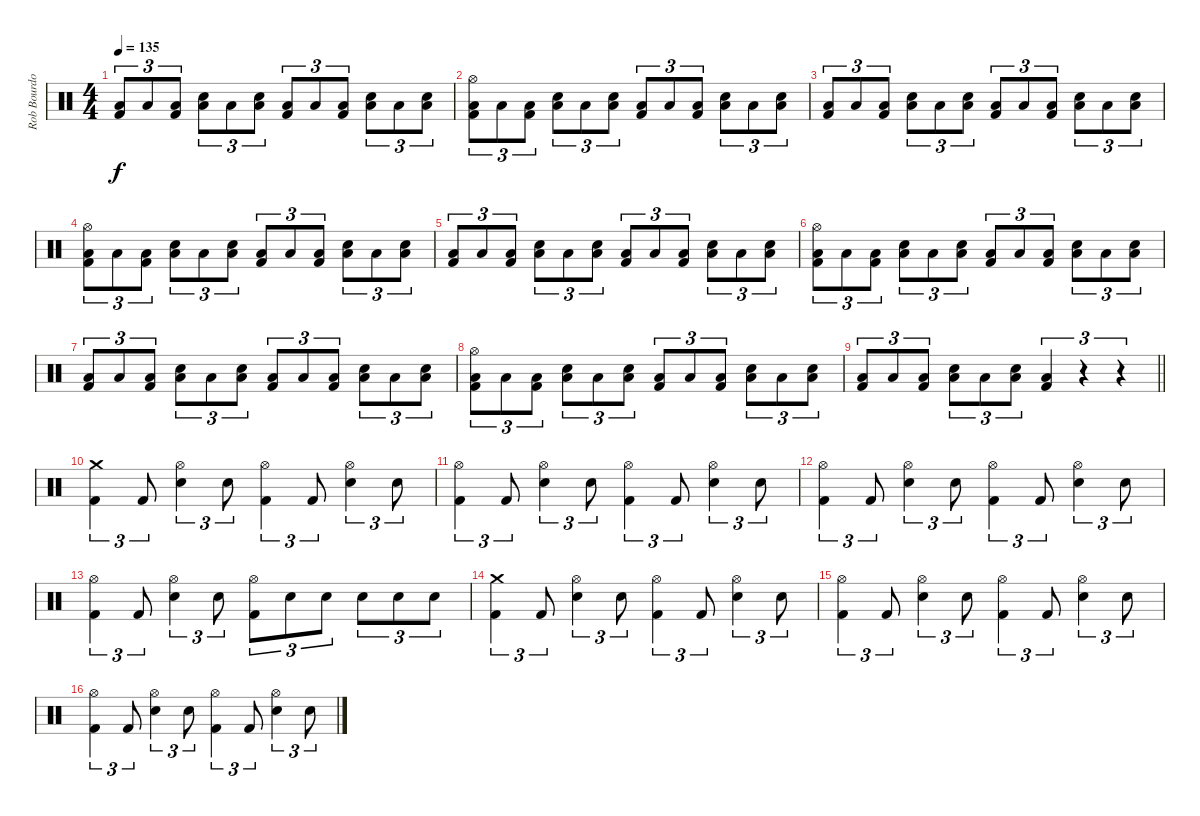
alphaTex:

\track ("Rob Bourdon [Drums]" "Rob Bourdo") {instrument percussion bank 5}
\staff {score}
\articulation defaults
\ts (4 4)
\tempo 135
\clef neutral
\ks c
("Low Tom (hit)" "Kick (hit) 2").8{tu (3 2) dy f} "Low Tom (hit)".8{tu (3 2)} ("Low Tom (hit)" "Kick (hit) 2").8{tu (3 2)} ("Low Tom (hit)" "Electric Snare (hit)").8{tu (3 2)} "Low Tom (hit)".8{tu (3 2)} ("Low Tom (hit)" "Electric Snare (hit)").8{tu (3 2)} ("Low Tom (hit)" "Kick (hit) 2").8{tu (3 2)} "Low Tom (hit)".8{tu (3 2)} ("Low Tom (hit)" "Kick (hit) 2").8{tu (3 2)} ("Low Tom (hit)" "Electric Snare (hit)").8{tu (3 2)} "Low Tom (hit)".8{tu (3 2)} ("Low Tom (hit)" "Electric Snare (hit)").8{tu (3 2)} |
("Hi-Hat (open)" "Low Tom (hit)" "Kick (hit) 2").8{tu (3 2)} "Low Tom (hit)".8{tu (3 2)} ("Low Tom (hit)" "Kick (hit) 2").8{tu (3 2)} ("Low Tom (hit)" "Electric Snare (hit)").8{tu (3 2)} "Low Tom (hit)".8{tu (3 2)} ("Low Tom (hit)" "Electric Snare (hit)").8{tu (3 2)} ("Low Tom (hit)" "Kick (hit) 2").8{tu (3 2)} "Low Tom (hit)".8{tu (3 2)} ("Low Tom (hit)" "Kick (hit) 2").8{tu (3 2)} ("Low Tom (hit)" "Electric Snare (hit)").8{tu (3 2)} "Low Tom (hit)".8{tu (3 2)} ("Low Tom (hit)" "Electric Snare (hit)").8{tu (3 2)} |
("Low Tom (hit)" "Kick (hit) 2").8{tu (3 2)} "Low Tom (hit)".8{tu (3 2)} ("Low Tom (hit)" "Kick (hit) 2").8{tu (3 2)} ("Low Tom (hit)" "Electric Snare (hit)").8{tu (3 2)} "Low Tom (hit)".8{tu (3 2)} ("Low Tom (hit)" "Electric Snare (hit)").8{tu (3 2)} ("Low Tom (hit)" "Kick (hit) 2").8{tu (3 2)} "Low Tom (hit)".8{tu (3 2)} ("Low Tom (hit)" "Kick (hit) 2").8{tu (3 2)} ("Low Tom (hit)" "Electric Snare (hit)").8{tu (3 2)} "Low Tom (hit)".8{tu (3 2)} ("Low Tom (hit)" "Electric Snare (hit)").8{tu (3 2)} |
("Hi-Hat (open)" "Low Tom (hit)" "Kick (hit) 2").8{tu (3 2)} "Low Tom (hit)".8{tu (3 2)} ("Low Tom (hit)" "Kick (hit) 2").8{tu (3 2)} ("Low Tom (hit)" "Electric Snare (hit)").8{tu (3 2)} "Low Tom (hit)".8{tu (3 2)} ("Low Tom (hit)" "Electric Snare (hit)").8{tu (3 2)} ("Low Tom (hit)" "Kick (hit) 2").8{tu (3 2)} "Low Tom (hit)".8{tu (3 2)} ("Low Tom (hit)" "Kick (hit) 2").8{tu (3 2)} ("Low Tom (hit)" "Electric Snare (hit)").8{tu (3 2)} "Low Tom (hit)".8{tu (3 2)} ("Low Tom (hit)" "Electric Snare (hit)").8{tu (3 2)} |
("Low Tom (hit)" "Kick (hit) 2").8{tu (3 2)} "Low Tom (hit)".8{tu (3 2)} ("Low Tom (hit)" "Kick (hit) 2").8{tu (3 2)} ("Low Tom (hit)" "Electric Snare (hit)").8{tu (3 2)} "Low Tom (hit)".8{tu (3 2)} ("Low Tom (hit)" "Electric Snare (hit)").8{tu (3 2)} ("Low Tom (hit)" "Kick (hit) 2").8{tu (3 2)} "Low Tom (hit)".8{tu (3 2)} ("Low Tom (hit)" "Kick (hit) 2").8{tu (3 2)} ("Low Tom (hit)" "Electric Snare (hit)").8{tu (3 2)} "Low Tom (hit)".8{tu (3 2)} ("Low Tom (hit)" "Electric Snare (hit)").8{tu (3 2)} |
("Hi-Hat (open)" "Low Tom (hit)" "Kick (hit) 2").8{tu (3 2)} "Low Tom (hit)".8{tu (3 2)} ("Low Tom (hit)" "Kick (hit) 2").8{tu (3 2)} ("Low Tom (hit)" "Electric Snare (hit)").8{tu (3 2)} "Low Tom (hit)".8{tu (3 2)} ("Low Tom (hit)" "Electric Snare (hit)").8{tu (3 2)} ("Low Tom (hit)" "Kick (hit) 2").8{tu (3 2)} "Low Tom (hit)".8{tu (3 2)} ("Low Tom (hit)" "Kick (hit) 2").8{tu (3 2)} ("Low Tom (hit)" "Electric Snare (hit)").8{tu (3 2)} "Low Tom (hit)".8{tu (3 2)} ("Low Tom (hit)" "Electric Snare (hit)").8{tu (3 2)} |
("Low Tom (hit)" "Kick (hit) 2").8{tu (3 2)} "Low Tom (hit)".8{tu (3 2)} ("Low Tom (hit)" "Kick (hit) 2").8{tu (3 2)} ("Low Tom (hit)" "Electric Snare (hit)").8{tu (3 2)} "Low Tom (hit)".8{tu (3 2)} ("Low Tom (hit)" "Electric Snare (hit)").8{tu (3 2)} ("Low Tom (hit)" "Kick (hit) 2").8{tu (3 2)} "Low Tom (hit)".8{tu (3 2)} ("Low Tom (hit)" "Kick (hit) 2").8{tu (3 2)} ("Low Tom (hit)" "Electric Snare (hit)").8{tu (3 2)} "Low Tom (hit)".8{tu (3 2)} ("Low Tom (hit)" "Electric Snare (hit)").8{tu (3 2)} |
("Hi-Hat (open)" "Low Tom (hit)" "Kick (hit) 2").8{tu (3 2)} "Low Tom (hit)".8{tu (3 2)} ("Low Tom (hit)" "Kick (hit) 2").8{tu (3 2)} ("Low Tom (hit)" "Electric Snare (hit)").8{tu (3 2)} "Low Tom (hit)".8{tu (3 2)} ("Low Tom (hit)" "Electric Snare (hit)").8{tu (3 2)} ("Low Tom (hit)" "Kick (hit) 2").8{tu (3 2)} "Low Tom (hit)".8{tu (3 2)} ("Low Tom (hit)" "Kick (hit) 2").8{tu (3 2)} ("Low Tom (hit)" "Electric Snare (hit)").8{tu (3 2)} "Low Tom (hit)".8{tu (3 2)} ("Low Tom (hit)" "Electric Snare (hit)").8{tu (3 2)} |
\barLineRight lightlight
("Low Tom (hit)" "Kick (hit) 2").8{tu (3 2)} "Low Tom (hit)".8{tu (3 2)} ("Low Tom (hit)" "Kick (hit) 2").8{tu (3 2)} ("Low Tom (hit)" "Electric Snare (hit)").8{tu (3 2)} "Low Tom (hit)".8{tu (3 2)} ("Low Tom (hit)" "Electric Snare (hit)").8{tu (3 2)} ("Low Tom (hit)" "Kick (hit) 2").4{tu (3 2)} r.4{tu (3 2)} r.4{tu (3 2)} |
("Crash medium (hit)" "Kick (hit) 2").4{tu (3 2)} "Kick (hit) 2".8{tu (3 2)} ("Hi-Hat (open)" "Electric Snare (hit)").4{tu (3 2)} "Electric Snare (hit)".8{tu (3 2)} ("Hi-Hat (open)" "Kick (hit) 2").4{tu (3 2)} "Kick (hit) 2".8{tu (3 2)} ("Hi-Hat (open)" "Electric Snare (hit)").4{tu (3 2)} "Electric Snare (hit)".8{tu (3 2)} |
("Hi-Hat (open)" "Kick (hit) 2").4{tu (3 2)} "Kick (hit) 2".8{tu (3 2)} ("Hi-Hat (open)" "Electric Snare (hit)").4{tu (3 2)} "Electric Snare (hit)".8{tu (3 2)} ("Hi-Hat (open)" "Kick (hit) 2").4{tu (3 2)} "Kick (hit) 2".8{tu (3 2)} ("Hi-Hat (open)" "Electric Snare (hit)").4{tu (3 2)} "Electric Snare (hit)".8{tu (3 2)} |
("Hi-Hat (open)" "Kick (hit) 2").4{tu (3 2)} "Kick (hit) 2".8{tu (3 2)} ("Hi-Hat (open)" "Electric Snare (hit)").4{tu (3 2)} "Electric Snare (hit)".8{tu (3 2)} ("Hi-Hat (open)" "Kick (hit) 2").4{tu (3 2)} "Kick (hit) 2".8{tu (3 2)} ("Hi-Hat (open)" "Electric Snare (hit)").4{tu (3 2)} "Electric Snare (hit)".8{tu (3 2)} |
("Hi-Hat (open)" "Kick (hit) 2").4{tu (3 2)} "Kick (hit) 2".8{tu (3 2)} ("Hi-Hat (open)" "Electric Snare (hit)").4{tu (3 2)} "Electric Snare (hit)".8{tu (3 2)} ("Hi-Hat (open)" "Kick (hit) 2").8{tu (3 2)} "Electric Snare (hit)".8{tu (3 2)} "Electric Snare (hit)".8{tu (3 2)} "Electric Snare (hit)".8{tu (3 2)} "Electric Snare (hit)".8{tu (3 2)} "Electric Snare (hit)".8{tu (3 2)} |
("Crash medium (hit)" "Kick (hit) 2").4{tu (3 2)} "Kick (hit) 2".8{tu (3 2)} ("Hi-Hat (open)" "Electric Snare (hit)").4{tu (3 2)} "Electric Snare (hit)".8{tu (3 2)} ("Hi-Hat (open)" "Kick (hit) 2").4{tu (3 2)} "Kick (hit) 2".8{tu (3 2)} ("Hi-Hat (open)" "Electric Snare (hit)").4{tu (3 2)} "Electric Snare (hit)".8{tu (3 2)} |
("Hi-Hat (open)" "Kick (hit) 2").4{tu (3 2)} "Kick (hit) 2".8{tu (3 2)} ("Hi-Hat (open)" "Electric Snare (hit)").4{tu (3 2)} "Electric Snare (hit)".8{tu (3 2)} ("Hi-Hat (open)" "Kick (hit) 2").4{tu (3 2)} "Kick (hit) 2".8{tu (3 2)} ("Hi-Hat (open)" "Electric Snare (hit)").4{tu (3 2)} "Electric Snare (hit)".8{tu (3 2)} |
("Hi-Hat (open)" "Kick (hit) 2").4{tu (3 2)} "Kick (hit) 2".8{tu (3 2)} ("Hi-Hat (open)" "Electric Snare (hit)").4{tu (3 2)} "Electric Snare (hit)".8{tu (3 2)} ("Hi-Hat (open)" "Kick (hit) 2").4{tu (3 2)} "Kick (hit) 2".8{tu (3 2)} ("Hi-Hat (open)" "Electric Snare (hit)").4{tu (3 2)} "Electric Snare (hit)".8{tu (3 2)}
